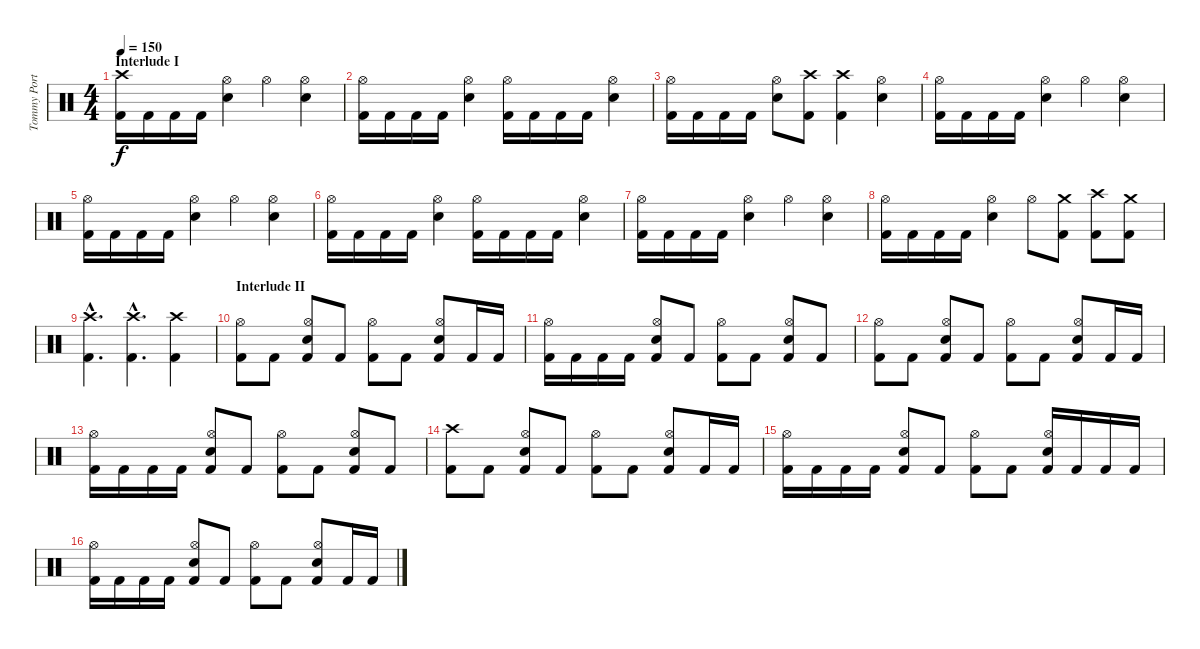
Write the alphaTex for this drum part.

\track ("Tommy Portino - Drums" "Tommy Port") {instrument percussion}
\staff {score}
\articulation defaults
\ts (4 4)
\section ("" "Interlude I")
\tempo 150
\clef neutral
\ks c
("Crash high (hit)" "Kick (hit) 2").16{dy f} "Kick (hit) 2".16 "Kick (hit) 2".16 "Kick (hit) 2".16 ("Hi-Hat (open)" "Electric Snare (hit)").4 "Hi-Hat (open)".4 ("Hi-Hat (open)" "Electric Snare (hit)").4 |
("Hi-Hat (open)" "Kick (hit) 2").16 "Kick (hit) 2".16 "Kick (hit) 2".16 "Kick (hit) 2".16 ("Hi-Hat (open)" "Electric Snare (hit)").4 ("Hi-Hat (open)" "Kick (hit) 2").16 "Kick (hit) 2".16 "Kick (hit) 2".16 "Kick (hit) 2".16 ("Hi-Hat (open)" "Electric Snare (hit)").4 |
("Hi-Hat (open)" "Kick (hit) 2").16 "Kick (hit) 2".16 "Kick (hit) 2".16 "Kick (hit) 2".16 ("Hi-Hat (open)" "Electric Snare (hit)").8 ("Crash high (hit)" "Kick (hit) 2").8 ("Crash high (hit)" "Kick (hit) 2").4 ("Hi-Hat (open)" "Electric Snare (hit)").4 |
("Hi-Hat (open)" "Kick (hit) 2").16 "Kick (hit) 2".16 "Kick (hit) 2".16 "Kick (hit) 2".16 ("Hi-Hat (open)" "Electric Snare (hit)").4 "Hi-Hat (open)".4 ("Hi-Hat (open)" "Electric Snare (hit)").4 |
("Hi-Hat (open)" "Kick (hit) 2").16 "Kick (hit) 2".16 "Kick (hit) 2".16 "Kick (hit) 2".16 ("Hi-Hat (open)" "Electric Snare (hit)").4 "Hi-Hat (open)".4 ("Hi-Hat (open)" "Electric Snare (hit)").4 |
("Hi-Hat (open)" "Kick (hit) 2").16 "Kick (hit) 2".16 "Kick (hit) 2".16 "Kick (hit) 2".16 ("Hi-Hat (open)" "Electric Snare (hit)").4 ("Hi-Hat (open)" "Kick (hit) 2").16 "Kick (hit) 2".16 "Kick (hit) 2".16 "Kick (hit) 2".16 ("Hi-Hat (open)" "Electric Snare (hit)").4 |
("Hi-Hat (open)" "Kick (hit) 2").16 "Kick (hit) 2".16 "Kick (hit) 2".16 "Kick (hit) 2".16 ("Hi-Hat (open)" "Electric Snare (hit)").4 "Hi-Hat (open)".4 ("Hi-Hat (open)" "Electric Snare (hit)").4 |
("Hi-Hat (open)" "Kick (hit) 2").16 "Kick (hit) 2".16 "Kick (hit) 2".16 "Kick (hit) 2".16 ("Hi-Hat (open)" "Electric Snare (hit)").4 "Hi-Hat (open)".8 ("Crash medium (hit)" "Kick (hit) 2").8 ("Crash high (hit)" "Kick (hit) 2").8 ("Crash medium (hit)" "Kick (hit) 2").8 |
("Crash high (hit)"{hac} "Kick (hit) 2"{hac}).4{d} ("Crash high (hit)"{hac} "Kick (hit) 2"{hac}).4{d} ("Crash high (hit)" "Kick (hit) 2").4 |
\section ("" "Interlude II")
("Hi-Hat (open)" "Kick (hit) 2").8 "Kick (hit) 2".8 ("Hi-Hat (open)" "Electric Snare (hit)" "Kick (hit) 2").8 "Kick (hit) 2".8 ("Hi-Hat (open)" "Kick (hit) 2").8 "Kick (hit) 2".8 ("Hi-Hat (open)" "Electric Snare (hit)" "Kick (hit) 2").8 "Kick (hit) 2".16 "Kick (hit) 2".16 |
("Hi-Hat (open)" "Kick (hit) 2").16 "Kick (hit) 2".16 "Kick (hit) 2".16 "Kick (hit) 2".16 ("Hi-Hat (open)" "Electric Snare (hit)" "Kick (hit) 2").8 "Kick (hit) 2".8 ("Hi-Hat (open)" "Kick (hit) 2").8 "Kick (hit) 2".8 ("Hi-Hat (open)" "Electric Snare (hit)" "Kick (hit) 2").8 "Kick (hit) 2".8 |
("Hi-Hat (open)" "Kick (hit) 2").8 "Kick (hit) 2".8 ("Hi-Hat (open)" "Electric Snare (hit)" "Kick (hit) 2").8 "Kick (hit) 2".8 ("Hi-Hat (open)" "Kick (hit) 2").8 "Kick (hit) 2".8 ("Hi-Hat (open)" "Electric Snare (hit)" "Kick (hit) 2").8 "Kick (hit) 2".16 "Kick (hit) 2".16 |
("Hi-Hat (open)" "Kick (hit) 2").16 "Kick (hit) 2".16 "Kick (hit) 2".16 "Kick (hit) 2".16 ("Hi-Hat (open)" "Electric Snare (hit)" "Kick (hit) 2").8 "Kick (hit) 2".8 ("Hi-Hat (open)" "Kick (hit) 2").8 "Kick (hit) 2".8 ("Hi-Hat (open)" "Electric Snare (hit)" "Kick (hit) 2").8 "Kick (hit) 2".8 |
("Crash high (hit)" "Kick (hit) 2").8 "Kick (hit) 2".8 ("Hi-Hat (open)" "Electric Snare (hit)" "Kick (hit) 2").8 "Kick (hit) 2".8 ("Hi-Hat (open)" "Kick (hit) 2").8 "Kick (hit) 2".8 ("Hi-Hat (open)" "Electric Snare (hit)" "Kick (hit) 2").8 "Kick (hit) 2".16 "Kick (hit) 2".16 |
("Hi-Hat (open)" "Kick (hit) 2").16 "Kick (hit) 2".16 "Kick (hit) 2".16 "Kick (hit) 2".16 ("Hi-Hat (open)" "Electric Snare (hit)" "Kick (hit) 2").8 "Kick (hit) 2".8 ("Hi-Hat (open)" "Kick (hit) 2").8 "Kick (hit) 2".8 ("Hi-Hat (open)" "Electric Snare (hit)" "Kick (hit) 2").16 "Kick (hit) 2".16 "Kick (hit) 2".16 "Kick (hit) 2".16 |
("Hi-Hat (open)" "Kick (hit) 2").16 "Kick (hit) 2".16 "Kick (hit) 2".16 "Kick (hit) 2".16 ("Hi-Hat (open)" "Electric Snare (hit)" "Kick (hit) 2").8 "Kick (hit) 2".8 ("Hi-Hat (open)" "Kick (hit) 2").8 "Kick (hit) 2".8 ("Hi-Hat (open)" "Electric Snare (hit)" "Kick (hit) 2").8 "Kick (hit) 2".16 "Kick (hit) 2".16
